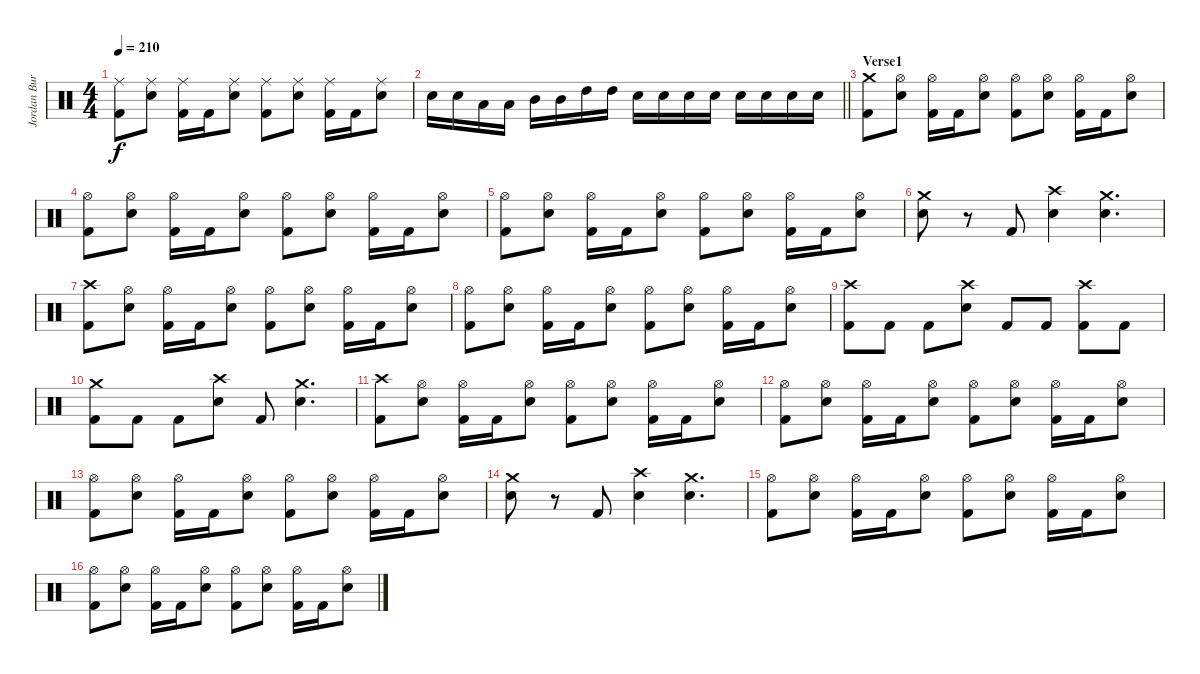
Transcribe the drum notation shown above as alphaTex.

\track ("Jordan Burns" "Jordan Bur") {instrument percussion}
\staff {score}
\articulation defaults
\ts (4 4)
\tempo 210
\clef neutral
\ks c
("Ride (middle)" "Kick (hit) 2").8{dy f} ("Ride (middle)" "Electric Snare (hit)").8 ("Ride (middle)" "Kick (hit) 2").16 "Kick (hit) 2".16 ("Ride (middle)" "Electric Snare (hit)").8 ("Ride (middle)" "Kick (hit) 2").8 ("Ride (middle)" "Electric Snare (hit)").8 ("Ride (middle)" "Kick (hit) 2").16 "Kick (hit) 2".16 ("Ride (middle)" "Electric Snare (hit)").8 |
\barLineRight lightlight "Electric Snare (hit)".16 "Electric Snare (hit)".16 "Low Tom (hit)".16 "Low Tom (hit)".16 "Mid Tom (hit)".16 "Mid Tom (hit)".16 "High Tom (hit)".16 "High Tom (hit)".16 "Electric Snare (hit)".16 "Electric Snare (hit)".16 "Electric Snare (hit)".16 "Electric Snare (hit)".16 "Electric Snare (hit)".16 "Electric Snare (hit)".16 "Electric Snare (hit)".16 "Electric Snare (hit)".16
|
\section ("" "Verse1")
("Crash medium (hit)" "Kick (hit) 2").8 ("Hi-Hat (open)" "Electric Snare (hit)").8 ("Hi-Hat (open)" "Kick (hit) 2").16 "Kick (hit) 2".16 ("Hi-Hat (open)" "Electric Snare (hit)").8 ("Hi-Hat (open)" "Kick (hit) 2").8 ("Hi-Hat (open)" "Electric Snare (hit)").8 ("Hi-Hat (open)" "Kick (hit) 2").16 "Kick (hit) 2".16 ("Hi-Hat (open)" "Electric Snare (hit)").8 |
("Hi-Hat (open)" "Kick (hit) 2").8 ("Hi-Hat (open)" "Electric Snare (hit)").8 ("Hi-Hat (open)" "Kick (hit) 2").16 "Kick (hit) 2".16 ("Hi-Hat (open)" "Electric Snare (hit)").8 ("Hi-Hat (open)" "Kick (hit) 2").8 ("Hi-Hat (open)" "Electric Snare (hit)").8 ("Hi-Hat (open)" "Kick (hit) 2").16 "Kick (hit) 2".16 ("Hi-Hat (open)" "Electric Snare (hit)").8 |
("Hi-Hat (open)" "Kick (hit) 2").8 ("Hi-Hat (open)" "Electric Snare (hit)").8 ("Hi-Hat (open)" "Kick (hit) 2").16 "Kick (hit) 2".16 ("Hi-Hat (open)" "Electric Snare (hit)").8 ("Hi-Hat (open)" "Kick (hit) 2").8 ("Hi-Hat (open)" "Electric Snare (hit)").8 ("Hi-Hat (open)" "Kick (hit) 2").16 "Kick (hit) 2".16 ("Hi-Hat (open)" "Electric Snare (hit)").8 |
("Crash medium (hit)" "Electric Snare (hit)").8 r.8 "Kick (hit) 2".8 ("Crash high (hit)" "Electric Snare (hit)").4 ("Crash medium (hit)" "Electric Snare (hit)").4{d} |
("Crash high (hit)" "Kick (hit) 2").8 ("Hi-Hat (open)" "Electric Snare (hit)").8 ("Hi-Hat (open)" "Kick (hit) 2").16 "Kick (hit) 2".16 ("Hi-Hat (open)" "Electric Snare (hit)").8 ("Hi-Hat (open)" "Kick (hit) 2").8 ("Hi-Hat (open)" "Electric Snare (hit)").8 ("Hi-Hat (open)" "Kick (hit) 2").16 "Kick (hit) 2".16 ("Hi-Hat (open)" "Electric Snare (hit)").8 |
("Hi-Hat (open)" "Kick (hit) 2").8 ("Hi-Hat (open)" "Electric Snare (hit)").8 ("Hi-Hat (open)" "Kick (hit) 2").16 "Kick (hit) 2".16 ("Hi-Hat (open)" "Electric Snare (hit)").8 ("Hi-Hat (open)" "Kick (hit) 2").8 ("Hi-Hat (open)" "Electric Snare (hit)").8 ("Hi-Hat (open)" "Kick (hit) 2").16 "Kick (hit) 2".16 ("Hi-Hat (open)" "Electric Snare (hit)").8 |
("Crash high (hit)" "Kick (hit) 2").8 "Kick (hit) 2".8 "Kick (hit) 2".8 ("Crash high (hit)" "Electric Snare (hit)").8 "Kick (hit) 2".8 "Kick (hit) 2".8 ("Crash high (hit)" "Kick (hit) 2").8 "Kick (hit) 2".8 |
("Crash medium (hit)" "Kick (hit) 2").8 "Kick (hit) 2".8 "Kick (hit) 2".8 ("Crash high (hit)" "Electric Snare (hit)").8 "Kick (hit) 2".8 ("Crash medium (hit)" "Electric Snare (hit)").4{d} |
("Crash high (hit)" "Kick (hit) 2").8 ("Hi-Hat (open)" "Electric Snare (hit)").8 ("Hi-Hat (open)" "Kick (hit) 2").16 "Kick (hit) 2".16 ("Hi-Hat (open)" "Electric Snare (hit)").8 ("Hi-Hat (open)" "Kick (hit) 2").8 ("Hi-Hat (open)" "Electric Snare (hit)").8 ("Hi-Hat (open)" "Kick (hit) 2").16 "Kick (hit) 2".16 ("Hi-Hat (open)" "Electric Snare (hit)").8 |
("Hi-Hat (open)" "Kick (hit) 2").8 ("Hi-Hat (open)" "Electric Snare (hit)").8 ("Hi-Hat (open)" "Kick (hit) 2").16 "Kick (hit) 2".16 ("Hi-Hat (open)" "Electric Snare (hit)").8 ("Hi-Hat (open)" "Kick (hit) 2").8 ("Hi-Hat (open)" "Electric Snare (hit)").8 ("Hi-Hat (open)" "Kick (hit) 2").16 "Kick (hit) 2".16 ("Hi-Hat (open)" "Electric Snare (hit)").8 |
("Hi-Hat (open)" "Kick (hit) 2").8 ("Hi-Hat (open)" "Electric Snare (hit)").8 ("Hi-Hat (open)" "Kick (hit) 2").16 "Kick (hit) 2".16 ("Hi-Hat (open)" "Electric Snare (hit)").8 ("Hi-Hat (open)" "Kick (hit) 2").8 ("Hi-Hat (open)" "Electric Snare (hit)").8 ("Hi-Hat (open)" "Kick (hit) 2").16 "Kick (hit) 2".16 ("Hi-Hat (open)" "Electric Snare (hit)").8 |
("Crash medium (hit)" "Electric Snare (hit)").8 r.8 "Kick (hit) 2".8 ("Crash high (hit)" "Electric Snare (hit)").4 ("Crash medium (hit)" "Electric Snare (hit)").4{d} |
("Hi-Hat (open)" "Kick (hit) 2").8 ("Hi-Hat (open)" "Electric Snare (hit)").8 ("Hi-Hat (open)" "Kick (hit) 2").16 "Kick (hit) 2".16 ("Hi-Hat (open)" "Electric Snare (hit)").8 ("Hi-Hat (open)" "Kick (hit) 2").8 ("Hi-Hat (open)" "Electric Snare (hit)").8 ("Hi-Hat (open)" "Kick (hit) 2").16 "Kick (hit) 2".16 ("Hi-Hat (open)" "Electric Snare (hit)").8 |
("Hi-Hat (open)" "Kick (hit) 2").8 ("Hi-Hat (open)" "Electric Snare (hit)").8 ("Hi-Hat (open)" "Kick (hit) 2").16 "Kick (hit) 2".16 ("Hi-Hat (open)" "Electric Snare (hit)").8 ("Hi-Hat (open)" "Kick (hit) 2").8 ("Hi-Hat (open)" "Electric Snare (hit)").8 ("Hi-Hat (open)" "Kick (hit) 2").16 "Kick (hit) 2".16 ("Hi-Hat (open)" "Electric Snare (hit)").8
